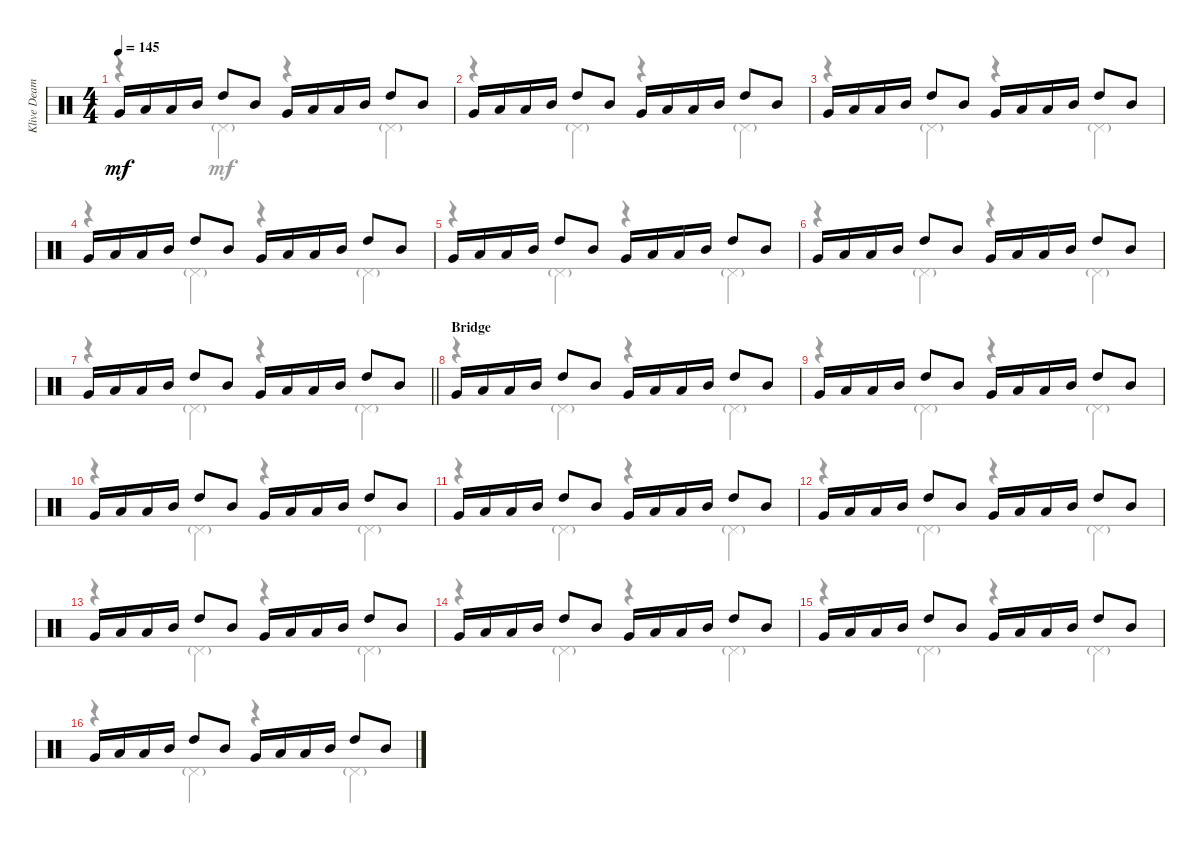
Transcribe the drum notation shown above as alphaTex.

\track ("Klive Deamer" "Klive Deam") {instrument percussion}
\staff {score}
\articulation defaults
\voice
\ts (4 4)
\tempo 145
\clef neutral
\ks c "Very Low Tom (hit)".16{dy mf} "Low Tom (hit)".16 "Low Tom (hit)".16 "Mid Tom (hit)".16 "High Tom (hit)".8 "Mid Tom (hit)".8 "Very Low Tom (hit)".16 "Low Tom (hit)".16 "Low Tom (hit)".16 "Mid Tom (hit)".16 "High Tom (hit)".8 "Mid Tom (hit)".8
|
"Very Low Tom (hit)".16 "Low Tom (hit)".16 "Low Tom (hit)".16 "Mid Tom (hit)".16 "High Tom (hit)".8 "Mid Tom (hit)".8 "Very Low Tom (hit)".16 "Low Tom (hit)".16 "Low Tom (hit)".16 "Mid Tom (hit)".16 "High Tom (hit)".8 "Mid Tom (hit)".8 |
"Very Low Tom (hit)".16 "Low Tom (hit)".16 "Low Tom (hit)".16 "Mid Tom (hit)".16 "High Tom (hit)".8 "Mid Tom (hit)".8 "Very Low Tom (hit)".16 "Low Tom (hit)".16 "Low Tom (hit)".16 "Mid Tom (hit)".16 "High Tom (hit)".8 "Mid Tom (hit)".8 |
"Very Low Tom (hit)".16 "Low Tom (hit)".16 "Low Tom (hit)".16 "Mid Tom (hit)".16 "High Tom (hit)".8 "Mid Tom (hit)".8 "Very Low Tom (hit)".16 "Low Tom (hit)".16 "Low Tom (hit)".16 "Mid Tom (hit)".16 "High Tom (hit)".8 "Mid Tom (hit)".8 |
"Very Low Tom (hit)".16 "Low Tom (hit)".16 "Low Tom (hit)".16 "Mid Tom (hit)".16 "High Tom (hit)".8 "Mid Tom (hit)".8 "Very Low Tom (hit)".16 "Low Tom (hit)".16 "Low Tom (hit)".16 "Mid Tom (hit)".16 "High Tom (hit)".8 "Mid Tom (hit)".8 |
"Very Low Tom (hit)".16 "Low Tom (hit)".16 "Low Tom (hit)".16 "Mid Tom (hit)".16 "High Tom (hit)".8 "Mid Tom (hit)".8 "Very Low Tom (hit)".16 "Low Tom (hit)".16 "Low Tom (hit)".16 "Mid Tom (hit)".16 "High Tom (hit)".8 "Mid Tom (hit)".8 |
\barLineRight lightlight "Very Low Tom (hit)".16 "Low Tom (hit)".16 "Low Tom (hit)".16 "Mid Tom (hit)".16 "High Tom (hit)".8 "Mid Tom (hit)".8 "Very Low Tom (hit)".16 "Low Tom (hit)".16 "Low Tom (hit)".16 "Mid Tom (hit)".16 "High Tom (hit)".8 "Mid Tom (hit)".8
|
\section ("" "Bridge")
"Very Low Tom (hit)".16 "Low Tom (hit)".16 "Low Tom (hit)".16 "Mid Tom (hit)".16 "High Tom (hit)".8 "Mid Tom (hit)".8 "Very Low Tom (hit)".16 "Low Tom (hit)".16 "Low Tom (hit)".16 "Mid Tom (hit)".16 "High Tom (hit)".8 "Mid Tom (hit)".8 |
"Very Low Tom (hit)".16 "Low Tom (hit)".16 "Low Tom (hit)".16 "Mid Tom (hit)".16 "High Tom (hit)".8 "Mid Tom (hit)".8 "Very Low Tom (hit)".16 "Low Tom (hit)".16 "Low Tom (hit)".16 "Mid Tom (hit)".16 "High Tom (hit)".8 "Mid Tom (hit)".8 |
"Very Low Tom (hit)".16 "Low Tom (hit)".16 "Low Tom (hit)".16 "Mid Tom (hit)".16 "High Tom (hit)".8 "Mid Tom (hit)".8 "Very Low Tom (hit)".16 "Low Tom (hit)".16 "Low Tom (hit)".16 "Mid Tom (hit)".16 "High Tom (hit)".8 "Mid Tom (hit)".8 |
"Very Low Tom (hit)".16 "Low Tom (hit)".16 "Low Tom (hit)".16 "Mid Tom (hit)".16 "High Tom (hit)".8 "Mid Tom (hit)".8 "Very Low Tom (hit)".16 "Low Tom (hit)".16 "Low Tom (hit)".16 "Mid Tom (hit)".16 "High Tom (hit)".8 "Mid Tom (hit)".8 |
"Very Low Tom (hit)".16 "Low Tom (hit)".16 "Low Tom (hit)".16 "Mid Tom (hit)".16 "High Tom (hit)".8 "Mid Tom (hit)".8 "Very Low Tom (hit)".16 "Low Tom (hit)".16 "Low Tom (hit)".16 "Mid Tom (hit)".16 "High Tom (hit)".8 "Mid Tom (hit)".8 |
"Very Low Tom (hit)".16 "Low Tom (hit)".16 "Low Tom (hit)".16 "Mid Tom (hit)".16 "High Tom (hit)".8 "Mid Tom (hit)".8 "Very Low Tom (hit)".16 "Low Tom (hit)".16 "Low Tom (hit)".16 "Mid Tom (hit)".16 "High Tom (hit)".8 "Mid Tom (hit)".8 |
"Very Low Tom (hit)".16 "Low Tom (hit)".16 "Low Tom (hit)".16 "Mid Tom (hit)".16 "High Tom (hit)".8 "Mid Tom (hit)".8 "Very Low Tom (hit)".16 "Low Tom (hit)".16 "Low Tom (hit)".16 "Mid Tom (hit)".16 "High Tom (hit)".8 "Mid Tom (hit)".8 |
"Very Low Tom (hit)".16 "Low Tom (hit)".16 "Low Tom (hit)".16 "Mid Tom (hit)".16 "High Tom (hit)".8 "Mid Tom (hit)".8 "Very Low Tom (hit)".16 "Low Tom (hit)".16 "Low Tom (hit)".16 "Mid Tom (hit)".16 "High Tom (hit)".8 "Mid Tom (hit)".8 |
"Very Low Tom (hit)".16 "Low Tom (hit)".16 "Low Tom (hit)".16 "Mid Tom (hit)".16 "High Tom (hit)".8 "Mid Tom (hit)".8 "Very Low Tom (hit)".16 "Low Tom (hit)".16 "Low Tom (hit)".16 "Mid Tom (hit)".16 "High Tom (hit)".8 "Mid Tom (hit)".8
\voice
\clef neutral
\ottava regular
\simile none
\ks c
r.4{dy mf} "Pedal Hi-Hat (hit)"{g}.4 r.4 "Pedal Hi-Hat (hit)"{g}.4 |
r.4 "Pedal Hi-Hat (hit)"{g}.4 r.4 "Pedal Hi-Hat (hit)"{g}.4 |
r.4 "Pedal Hi-Hat (hit)"{g}.4 r.4 "Pedal Hi-Hat (hit)"{g}.4 |
r.4 "Pedal Hi-Hat (hit)"{g}.4 r.4 "Pedal Hi-Hat (hit)"{g}.4 |
r.4 "Pedal Hi-Hat (hit)"{g}.4 r.4 "Pedal Hi-Hat (hit)"{g}.4 |
r.4 "Pedal Hi-Hat (hit)"{g}.4 r.4 "Pedal Hi-Hat (hit)"{g}.4 |
\barLineRight lightlight
r.4 "Pedal Hi-Hat (hit)"{g}.4 r.4 "Pedal Hi-Hat (hit)"{g}.4 |
r.4 "Pedal Hi-Hat (hit)"{g}.4 r.4 "Pedal Hi-Hat (hit)"{g}.4 |
r.4 "Pedal Hi-Hat (hit)"{g}.4 r.4 "Pedal Hi-Hat (hit)"{g}.4 |
r.4 "Pedal Hi-Hat (hit)"{g}.4 r.4 "Pedal Hi-Hat (hit)"{g}.4 |
r.4 "Pedal Hi-Hat (hit)"{g}.4 r.4 "Pedal Hi-Hat (hit)"{g}.4 |
r.4 "Pedal Hi-Hat (hit)"{g}.4 r.4 "Pedal Hi-Hat (hit)"{g}.4 |
r.4 "Pedal Hi-Hat (hit)"{g}.4 r.4 "Pedal Hi-Hat (hit)"{g}.4 |
r.4 "Pedal Hi-Hat (hit)"{g}.4 r.4 "Pedal Hi-Hat (hit)"{g}.4 |
r.4 "Pedal Hi-Hat (hit)"{g}.4 r.4 "Pedal Hi-Hat (hit)"{g}.4 |
r.4 "Pedal Hi-Hat (hit)"{g}.4 r.4 "Pedal Hi-Hat (hit)"{g}.4
